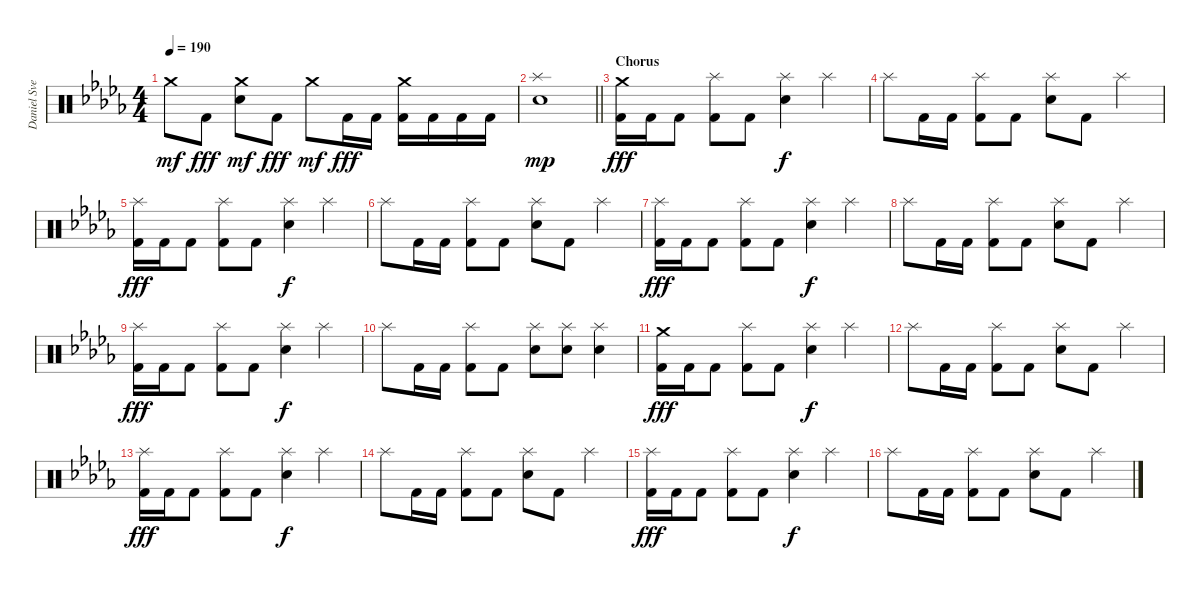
\track ("Daniel Svensson" "Daniel Sve") {instrument percussion}
\staff {score}
\articulation defaults
\ts (4 4)
\tempo 190
\clef neutral
\ks db "Crash medium (hit)".8{dy mf} "Kick (hit) 2".8{dy fff}
("Crash medium (hit)" "Electric Snare (hit)").8{dy mf} "Kick (hit) 2".8{dy fff} "Crash medium (hit)".8{dy mf} "Kick (hit) 2".16{dy fff} "Kick (hit) 2".16 ("Crash medium (hit)" "Kick (hit) 2").16 "Kick (hit) 2".16 "Kick (hit) 2".16 "Kick (hit) 2".16 |
\barLineRight lightlight
("Splash (hit)" "Electric Snare (hit)").1{dy mp} |
\section ("" "Chorus")
("Crash medium (hit)" "Kick (hit) 2").16{dy fff} "Kick (hit) 2".16 "Kick (hit) 2".8 ("Splash (hit)" "Kick (hit) 2").8 "Kick (hit) 2".8 ("Splash (hit)" "Electric Snare (hit)").4{dy f} "Splash (hit)".4 |
"Splash (hit)".8 "Kick (hit) 2".16 "Kick (hit) 2".16 ("Splash (hit)" "Kick (hit) 2").8 "Kick (hit) 2".8 ("Splash (hit)" "Electric Snare (hit)").8 "Kick (hit) 2".8 "Splash (hit)".4 |
("Splash (hit)" "Kick (hit) 2").16{dy fff} "Kick (hit) 2".16 "Kick (hit) 2".8 ("Splash (hit)" "Kick (hit) 2").8 "Kick (hit) 2".8 ("Splash (hit)" "Electric Snare (hit)").4{dy f} "Splash (hit)".4 |
"Splash (hit)".8 "Kick (hit) 2".16 "Kick (hit) 2".16 ("Splash (hit)" "Kick (hit) 2").8 "Kick (hit) 2".8 ("Splash (hit)" "Electric Snare (hit)").8 "Kick (hit) 2".8 "Splash (hit)".4 |
("Splash (hit)" "Kick (hit) 2").16{dy fff} "Kick (hit) 2".16 "Kick (hit) 2".8 ("Splash (hit)" "Kick (hit) 2").8 "Kick (hit) 2".8 ("Splash (hit)" "Electric Snare (hit)").4{dy f} "Splash (hit)".4 |
"Splash (hit)".8 "Kick (hit) 2".16 "Kick (hit) 2".16 ("Splash (hit)" "Kick (hit) 2").8 "Kick (hit) 2".8 ("Splash (hit)" "Electric Snare (hit)").8 "Kick (hit) 2".8 "Splash (hit)".4 |
("Splash (hit)" "Kick (hit) 2").16{dy fff} "Kick (hit) 2".16 "Kick (hit) 2".8 ("Splash (hit)" "Kick (hit) 2").8 "Kick (hit) 2".8 ("Splash (hit)" "Electric Snare (hit)").4{dy f} "Splash (hit)".4 |
"Splash (hit)".8 "Kick (hit) 2".16 "Kick (hit) 2".16 ("Splash (hit)" "Kick (hit) 2").8 "Kick (hit) 2".8 ("Splash (hit)" "Electric Snare (hit)").8 ("Splash (hit)" "Electric Snare (hit)").8 ("Splash (hit)" "Electric Snare (hit)").4 |
("Crash medium (hit)" "Kick (hit) 2").16{dy fff} "Kick (hit) 2".16 "Kick (hit) 2".8 ("Splash (hit)" "Kick (hit) 2").8 "Kick (hit) 2".8 ("Splash (hit)" "Electric Snare (hit)").4{dy f} "Splash (hit)".4 |
"Splash (hit)".8 "Kick (hit) 2".16 "Kick (hit) 2".16 ("Splash (hit)" "Kick (hit) 2").8 "Kick (hit) 2".8 ("Splash (hit)" "Electric Snare (hit)").8 "Kick (hit) 2".8 "Splash (hit)".4 |
("Splash (hit)" "Kick (hit) 2").16{dy fff} "Kick (hit) 2".16 "Kick (hit) 2".8 ("Splash (hit)" "Kick (hit) 2").8 "Kick (hit) 2".8 ("Splash (hit)" "Electric Snare (hit)").4{dy f} "Splash (hit)".4 |
"Splash (hit)".8 "Kick (hit) 2".16 "Kick (hit) 2".16 ("Splash (hit)" "Kick (hit) 2").8 "Kick (hit) 2".8 ("Splash (hit)" "Electric Snare (hit)").8 "Kick (hit) 2".8 "Splash (hit)".4 |
("Splash (hit)" "Kick (hit) 2").16{dy fff} "Kick (hit) 2".16 "Kick (hit) 2".8 ("Splash (hit)" "Kick (hit) 2").8 "Kick (hit) 2".8 ("Splash (hit)" "Electric Snare (hit)").4{dy f} "Splash (hit)".4 |
"Splash (hit)".8 "Kick (hit) 2".16 "Kick (hit) 2".16 ("Splash (hit)" "Kick (hit) 2").8 "Kick (hit) 2".8 ("Splash (hit)" "Electric Snare (hit)").8 "Kick (hit) 2".8 "Splash (hit)".4
